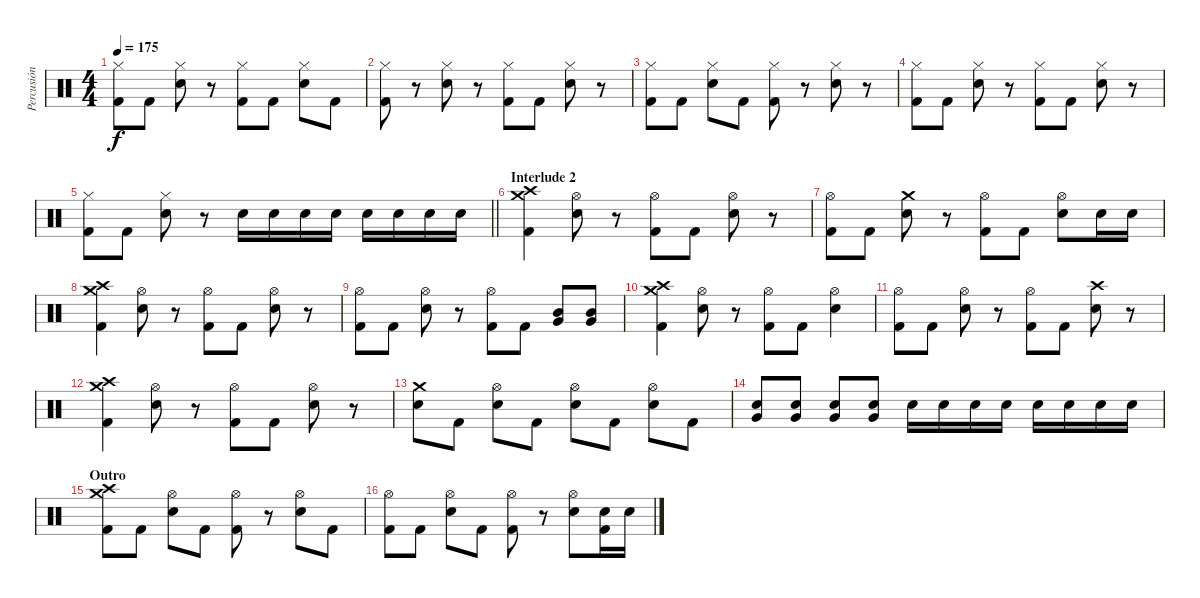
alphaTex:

\track ("Percusión" "Percusión") {instrument percussion}
\staff {score}
\articulation defaults
\ts (4 4)
\tempo 175
\clef neutral
\ks c
("Hi-Hat (closed)" "Kick (hit) 2").8{dy f} "Kick (hit) 2".8 ("Hi-Hat (closed)" "Electric Snare (hit)").8 r.8 ("Hi-Hat (closed)" "Kick (hit) 2").8 "Kick (hit) 2".8 ("Hi-Hat (closed)" "Electric Snare (hit)").8 "Kick (hit) 2".8 |
("Hi-Hat (closed)" "Kick (hit) 2").8 r.8 ("Hi-Hat (closed)" "Electric Snare (hit)").8 r.8 ("Hi-Hat (closed)" "Kick (hit) 2").8 "Kick (hit) 2".8 ("Hi-Hat (closed)" "Electric Snare (hit)").8 r.8 |
("Hi-Hat (closed)" "Kick (hit) 2").8 "Kick (hit) 2".8 ("Hi-Hat (closed)" "Electric Snare (hit)").8 "Kick (hit) 2".8 ("Hi-Hat (closed)" "Kick (hit) 2").8 r.8 ("Hi-Hat (closed)" "Electric Snare (hit)").8 r.8 |
("Hi-Hat (closed)" "Kick (hit) 2").8 "Kick (hit) 2".8 ("Hi-Hat (closed)" "Electric Snare (hit)").8 r.8 ("Hi-Hat (closed)" "Kick (hit) 2").8 "Kick (hit) 2".8 ("Hi-Hat (closed)" "Electric Snare (hit)").8 r.8 |
\barLineRight lightlight
("Hi-Hat (closed)" "Kick (hit) 2").8 "Kick (hit) 2".8 ("Hi-Hat (closed)" "Electric Snare (hit)").8 r.8 "Electric Snare (hit)".16{volume 16} "Electric Snare (hit)".16 "Electric Snare (hit)".16 "Electric Snare (hit)".16 "Electric Snare (hit)".16 "Electric Snare (hit)".16 "Electric Snare (hit)".16 "Electric Snare (hit)".16 |
\section ("" "Interlude 2")
("Crash high (hit)" "Crash medium (hit)" "Kick (hit) 2").4 ("Hi-Hat (open)" "Electric Snare (hit)").8 r.8 ("Hi-Hat (open)" "Kick (hit) 2").8 "Kick (hit) 2".8 ("Hi-Hat (open)" "Electric Snare (hit)").8 r.8 |
("Hi-Hat (open)" "Kick (hit) 2").8 "Kick (hit) 2".8 ("Crash medium (hit)" "Electric Snare (hit)").8 r.8 ("Hi-Hat (open)" "Kick (hit) 2").8 "Kick (hit) 2".8 ("Hi-Hat (open)" "Electric Snare (hit)").8 "Electric Snare (hit)".16 "Electric Snare (hit)".16 |
("Crash high (hit)" "Crash medium (hit)" "Kick (hit) 2").4 ("Hi-Hat (open)" "Electric Snare (hit)").8 r.8 ("Hi-Hat (open)" "Kick (hit) 2").8 "Kick (hit) 2".8 ("Hi-Hat (open)" "Electric Snare (hit)").8 r.8 |
("Hi-Hat (open)" "Kick (hit) 2").8 "Kick (hit) 2".8 ("Hi-Hat (open)" "Electric Snare (hit)").8 r.8 ("Hi-Hat (open)" "Kick (hit) 2").8 "Kick (hit) 2".8 ("Mid Tom (hit)" "Very Low Tom (hit)").8 ("Mid Tom (hit)" "Very Low Tom (hit)").8 |
("Crash high (hit)" "Crash medium (hit)" "Kick (hit) 2").4 ("Hi-Hat (open)" "Electric Snare (hit)").8 r.8 ("Hi-Hat (open)" "Kick (hit) 2").8 "Kick (hit) 2".8 ("Hi-Hat (open)" "Electric Snare (hit)").4 |
("Hi-Hat (open)" "Kick (hit) 2").8 "Kick (hit) 2".8 ("Hi-Hat (open)" "Electric Snare (hit)").8 r.8 ("Hi-Hat (open)" "Kick (hit) 2").8 "Kick (hit) 2".8 ("Crash high (hit)" "Electric Snare (hit)").8 r.8 |
("Crash high (hit)" "Crash medium (hit)" "Kick (hit) 2").4 ("Hi-Hat (open)" "Electric Snare (hit)").8 r.8 ("Hi-Hat (open)" "Kick (hit) 2").8 "Kick (hit) 2".8 ("Hi-Hat (open)" "Electric Snare (hit)").8 r.8 |
("Crash medium (hit)" "Electric Snare (hit)").8 "Kick (hit) 2".8 ("Hi-Hat (open)" "Electric Snare (hit)").8 "Kick (hit) 2".8 ("Hi-Hat (open)" "Electric Snare (hit)").8 "Kick (hit) 2".8 ("Hi-Hat (open)" "Electric Snare (hit)").8 "Kick (hit) 2".8 |
("Very Low Tom (hit)" "Electric Snare (hit)").8 ("Very Low Tom (hit)" "Electric Snare (hit)").8 ("Very Low Tom (hit)" "Electric Snare (hit)").8 ("Very Low Tom (hit)" "Electric Snare (hit)").8 "Electric Snare (hit)".16 "Electric Snare (hit)".16 "Electric Snare (hit)".16 "Electric Snare (hit)".16 "Electric Snare (hit)".16 "Electric Snare (hit)".16 "Electric Snare (hit)".16 "Electric Snare (hit)".16 |
\section ("" "Outro")
("Crash medium (hit)" "Crash high (hit)" "Kick (hit) 2").8 "Kick (hit) 2".8 ("Hi-Hat (open)" "Electric Snare (hit)").8 "Kick (hit) 2".8 ("Hi-Hat (open)" "Kick (hit) 2").8 r.8 ("Hi-Hat (open)" "Electric Snare (hit)").8 "Kick (hit) 2".8 |
("Hi-Hat (open)" "Kick (hit) 2").8 "Kick (hit) 2".8 ("Hi-Hat (open)" "Electric Snare (hit)").8 "Kick (hit) 2".8 ("Hi-Hat (open)" "Kick (hit) 2").8 r.8 ("Hi-Hat (open)" "Electric Snare (hit)").8 ("Electric Snare (hit)" "Kick (hit) 2").16 "Electric Snare (hit)".16
